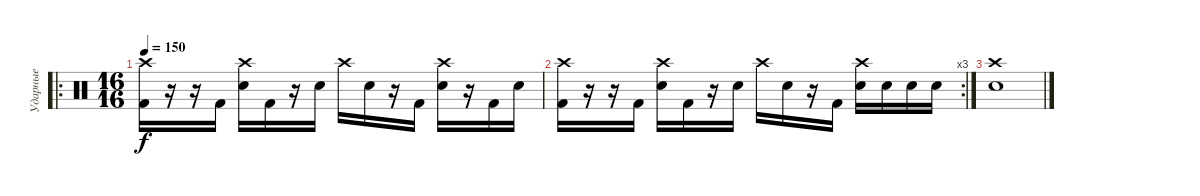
\track ("Ударные" "Ударные") {instrument percussion}
\staff {score}
\articulation defaults
\ro
\ts (16 16)
\tempo 150
\clef neutral
\ks c
("Crash high (hit)" "Kick (hit) 2").16{dy f} r.16 r.16 "Kick (hit) 2".16 ("Crash high (hit)" "Electric Snare (hit)").16 "Kick (hit) 2".16 r.16 "Electric Snare (hit)".16 "Crash high (hit)".16 "Electric Snare (hit)".16 r.16 "Kick (hit) 2".16 ("Crash high (hit)" "Electric Snare (hit)").16 r.16 "Kick (hit) 2".16 "Electric Snare (hit)".16 |
\rc 3
("Crash high (hit)" "Kick (hit) 2").16 r.16 r.16 "Kick (hit) 2".16 ("Crash high (hit)" "Electric Snare (hit)").16 "Kick (hit) 2".16 r.16 "Electric Snare (hit)".16 "Crash high (hit)".16 "Electric Snare (hit)".16 r.16 "Kick (hit) 2".16 ("Crash high (hit)" "Electric Snare (hit)").16 "Electric Snare (hit)".16 "Electric Snare (hit)".16 "Electric Snare (hit)".16 |
("Crash high (hit)" "Snare (hit) 2").1
